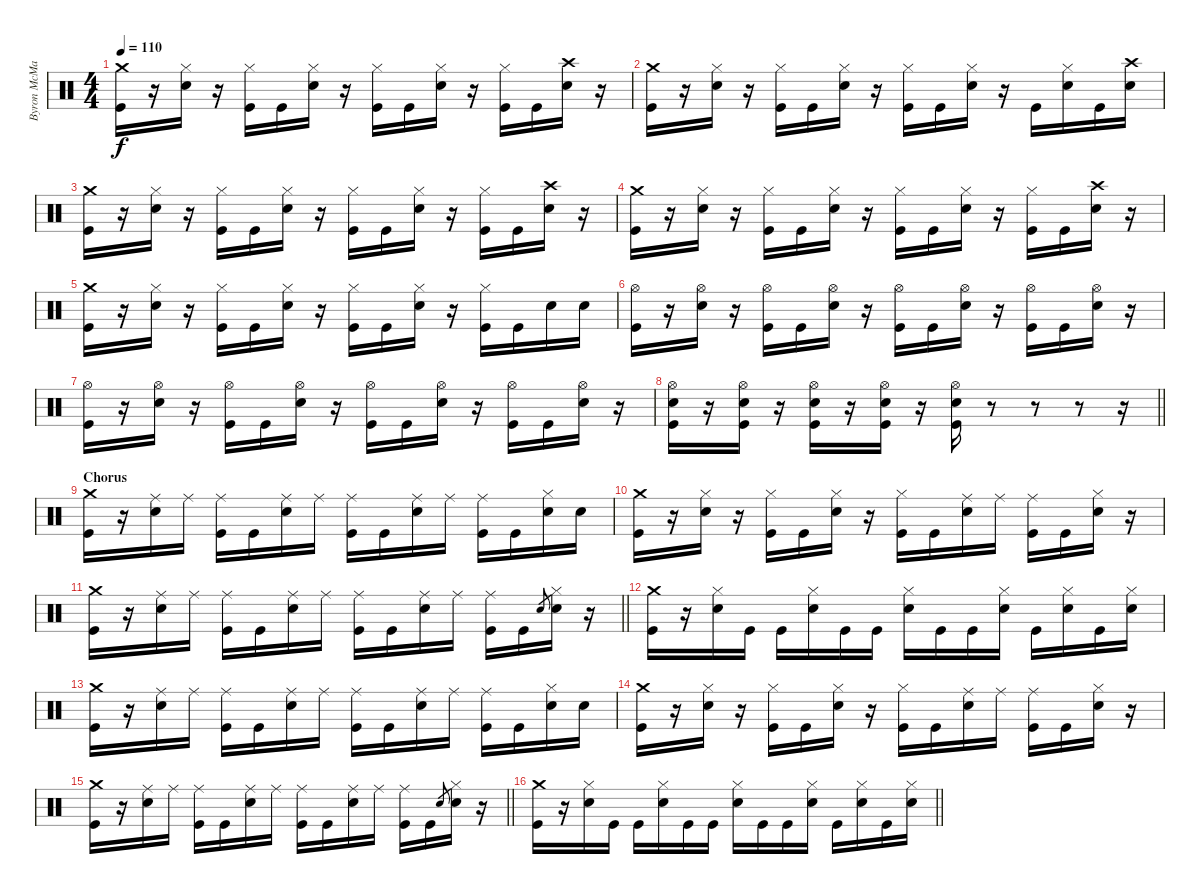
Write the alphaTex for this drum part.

\track ("Byron McMackin" "Byron McMa") {instrument percussion}
\staff {score}
\articulation defaults
\ts (4 4)
\tempo 110
\clef neutral
\ks c
("Crash medium (hit)" "Kick (hit)").16{dy f} r.16 ("Hi-Hat (closed)" "Electric Snare (hit)").16 r.16 ("Hi-Hat (closed)" "Kick (hit)").16 "Kick (hit)".16 ("Hi-Hat (closed)" "Electric Snare (hit)").16 r.16 ("Hi-Hat (closed)" "Kick (hit)").16 "Kick (hit)".16 ("Hi-Hat (closed)" "Electric Snare (hit)").16 r.16 ("Hi-Hat (closed)" "Kick (hit)").16 "Kick (hit)".16 ("Crash high (hit)" "Electric Snare (hit)").16 r.16 |
("Crash medium (hit)" "Kick (hit)").16 r.16 ("Hi-Hat (closed)" "Electric Snare (hit)").16 r.16 ("Hi-Hat (closed)" "Kick (hit)").16 "Kick (hit)".16 ("Hi-Hat (closed)" "Electric Snare (hit)").16 r.16 ("Hi-Hat (closed)" "Kick (hit)").16 "Kick (hit)".16 ("Hi-Hat (closed)" "Electric Snare (hit)").16 r.16 "Kick (hit)".16 ("Hi-Hat (closed)" "Electric Snare (hit)").16 "Kick (hit)".16 ("Crash high (hit)" "Electric Snare (hit)").16 |
("Crash medium (hit)" "Kick (hit)").16 r.16 ("Hi-Hat (closed)" "Electric Snare (hit)").16 r.16 ("Hi-Hat (closed)" "Kick (hit)").16 "Kick (hit)".16 ("Hi-Hat (closed)" "Electric Snare (hit)").16 r.16 ("Hi-Hat (closed)" "Kick (hit)").16 "Kick (hit)".16 ("Hi-Hat (closed)" "Electric Snare (hit)").16 r.16 ("Hi-Hat (closed)" "Kick (hit)").16 "Kick (hit)".16 ("Crash high (hit)" "Electric Snare (hit)").16 r.16 |
("Crash medium (hit)" "Kick (hit)").16 r.16 ("Hi-Hat (closed)" "Electric Snare (hit)").16 r.16 ("Hi-Hat (closed)" "Kick (hit)").16 "Kick (hit)".16 ("Hi-Hat (closed)" "Electric Snare (hit)").16 r.16 ("Hi-Hat (closed)" "Kick (hit)").16 "Kick (hit)".16 ("Hi-Hat (closed)" "Electric Snare (hit)").16 r.16 ("Hi-Hat (closed)" "Kick (hit)").16 "Kick (hit)".16 ("Crash high (hit)" "Electric Snare (hit)").16 r.16 |
("Crash medium (hit)" "Kick (hit)").16 r.16 ("Hi-Hat (closed)" "Electric Snare (hit)").16 r.16 ("Hi-Hat (closed)" "Kick (hit)").16 "Kick (hit)".16 ("Hi-Hat (closed)" "Electric Snare (hit)").16 r.16 ("Hi-Hat (closed)" "Kick (hit)").16 "Kick (hit)".16 ("Hi-Hat (closed)" "Electric Snare (hit)").16 r.16 ("Hi-Hat (closed)" "Kick (hit)").16 "Kick (hit)".16 "Electric Snare (hit)".16 "Electric Snare (hit)".16 |
("Hi-Hat (open)" "Kick (hit)").16 r.16 ("Hi-Hat (open)" "Electric Snare (hit)").16 r.16 ("Hi-Hat (open)" "Kick (hit)").16 "Kick (hit)".16 ("Hi-Hat (open)" "Electric Snare (hit)").16 r.16 ("Hi-Hat (open)" "Kick (hit)").16 "Kick (hit)".16 ("Hi-Hat (open)" "Electric Snare (hit)").16 r.16 ("Hi-Hat (open)" "Kick (hit)").16 "Kick (hit)".16 ("Hi-Hat (open)" "Electric Snare (hit)").16 r.16 |
("Hi-Hat (open)" "Kick (hit)").16 r.16 ("Hi-Hat (open)" "Electric Snare (hit)").16 r.16 ("Hi-Hat (open)" "Kick (hit)").16 "Kick (hit)".16 ("Hi-Hat (open)" "Electric Snare (hit)").16 r.16 ("Hi-Hat (open)" "Kick (hit)").16 "Kick (hit)".16 ("Hi-Hat (open)" "Electric Snare (hit)").16 r.16 ("Hi-Hat (open)" "Kick (hit)").16 "Kick (hit)".16 ("Hi-Hat (open)" "Electric Snare (hit)").16 r.16 |
\barLineRight lightlight
("Hi-Hat (open)" "Electric Snare (hit)" "Kick (hit)").16 r.16 ("Hi-Hat (open)" "Electric Snare (hit)" "Kick (hit)").16 r.16 ("Hi-Hat (open)" "Electric Snare (hit)" "Kick (hit)").16 r.16 ("Hi-Hat (open)" "Electric Snare (hit)" "Kick (hit)").16 r.16 ("Hi-Hat (open)" "Electric Snare (hit)" "Kick (hit)").16 r.8 r.8 r.8 r.16 |
\section ("" "Chorus")
("Crash medium (hit)" "Kick (hit)").16 r.16 ("Ride (middle)" "Electric Snare (hit)").16 "Ride (middle)".16 ("Ride (middle)" "Kick (hit)").16 "Kick (hit)".16 ("Ride (middle)" "Electric Snare (hit)").16 "Ride (middle)".16 ("Ride (middle)" "Kick (hit)").16 "Kick (hit)".16 ("Ride (middle)" "Electric Snare (hit)").16 "Ride (middle)".16 ("Ride (middle)" "Kick (hit)").16 "Kick (hit)".16 ("Hi-Hat (closed)" "Electric Snare (hit)").16 "Electric Snare (hit)".16 |
("Crash medium (hit)" "Kick (hit)").16 r.16 ("Hi-Hat (closed)" "Electric Snare (hit)").16 r.16 ("Hi-Hat (closed)" "Kick (hit)").16 "Kick (hit)".16 ("Hi-Hat (closed)" "Electric Snare (hit)").16 r.16 ("Hi-Hat (closed)" "Kick (hit)").16 "Kick (hit)".16 ("Ride (middle)" "Electric Snare (hit)").16 "Ride (middle)".16 ("Ride (middle)" "Kick (hit)").16 "Kick (hit)".16 ("Hi-Hat (closed)" "Electric Snare (hit)").16 r.16 |
\barLineRight lightlight
("Crash medium (hit)" "Kick (hit)").16 r.16 ("Ride (middle)" "Electric Snare (hit)").16 "Ride (middle)".16 ("Ride (middle)" "Kick (hit)").16 "Kick (hit)".16 ("Ride (middle)" "Electric Snare (hit)").16 "Ride (middle)".16 ("Ride (middle)" "Kick (hit)").16 "Kick (hit)".16 ("Ride (middle)" "Electric Snare (hit)").16 "Ride (middle)".16 ("Ride (middle)" "Kick (hit)").16 "Kick (hit)".16 "Electric Snare (hit)".8{gr} ("Hi-Hat (closed)" "Electric Snare (hit)").16 r.16 |
("Crash medium (hit)" "Kick (hit)").16 r.16 ("Hi-Hat (closed)" "Electric Snare (hit)").16 "Kick (hit)".16 "Kick (hit)".16 ("Hi-Hat (closed)" "Electric Snare (hit)").16 "Kick (hit)".16 "Kick (hit)".16 ("Hi-Hat (closed)" "Electric Snare (hit)").16 "Kick (hit)".16 "Kick (hit)".16 ("Hi-Hat (closed)" "Electric Snare (hit)").16 "Kick (hit)".16 ("Hi-Hat (closed)" "Electric Snare (hit)").16 "Kick (hit)".16 ("Hi-Hat (closed)" "Electric Snare (hit)").16 |
("Crash medium (hit)" "Kick (hit)").16 r.16 ("Ride (middle)" "Electric Snare (hit)").16 "Ride (middle)".16 ("Ride (middle)" "Kick (hit)").16 "Kick (hit)".16 ("Ride (middle)" "Electric Snare (hit)").16 "Ride (middle)".16 ("Ride (middle)" "Kick (hit)").16 "Kick (hit)".16 ("Ride (middle)" "Electric Snare (hit)").16 "Ride (middle)".16 ("Ride (middle)" "Kick (hit)").16 "Kick (hit)".16 ("Hi-Hat (closed)" "Electric Snare (hit)").16 "Electric Snare (hit)".16 |
("Crash medium (hit)" "Kick (hit)").16 r.16 ("Hi-Hat (closed)" "Electric Snare (hit)").16 r.16 ("Hi-Hat (closed)" "Kick (hit)").16 "Kick (hit)".16 ("Hi-Hat (closed)" "Electric Snare (hit)").16 r.16 ("Hi-Hat (closed)" "Kick (hit)").16 "Kick (hit)".16 ("Ride (middle)" "Electric Snare (hit)").16 "Ride (middle)".16 ("Ride (middle)" "Kick (hit)").16 "Kick (hit)".16 ("Hi-Hat (closed)" "Electric Snare (hit)").16 r.16 |
\barLineRight lightlight
("Crash medium (hit)" "Kick (hit)").16 r.16 ("Ride (middle)" "Electric Snare (hit)").16 "Ride (middle)".16 ("Ride (middle)" "Kick (hit)").16 "Kick (hit)".16 ("Ride (middle)" "Electric Snare (hit)").16 "Ride (middle)".16 ("Ride (middle)" "Kick (hit)").16 "Kick (hit)".16 ("Ride (middle)" "Electric Snare (hit)").16 "Ride (middle)".16 ("Ride (middle)" "Kick (hit)").16 "Kick (hit)".16 "Electric Snare (hit)".8{gr} ("Hi-Hat (closed)" "Electric Snare (hit)").16 r.16 |
\barLineRight lightlight
("Crash medium (hit)" "Kick (hit)").16 r.16 ("Hi-Hat (closed)" "Electric Snare (hit)").16 "Kick (hit)".16 "Kick (hit)".16 ("Hi-Hat (closed)" "Electric Snare (hit)").16 "Kick (hit)".16 "Kick (hit)".16 ("Hi-Hat (closed)" "Electric Snare (hit)").16 "Kick (hit)".16 "Kick (hit)".16 ("Hi-Hat (closed)" "Electric Snare (hit)").16 "Kick (hit)".16 ("Hi-Hat (closed)" "Electric Snare (hit)").16 "Kick (hit)".16 ("Hi-Hat (closed)" "Electric Snare (hit)").16
